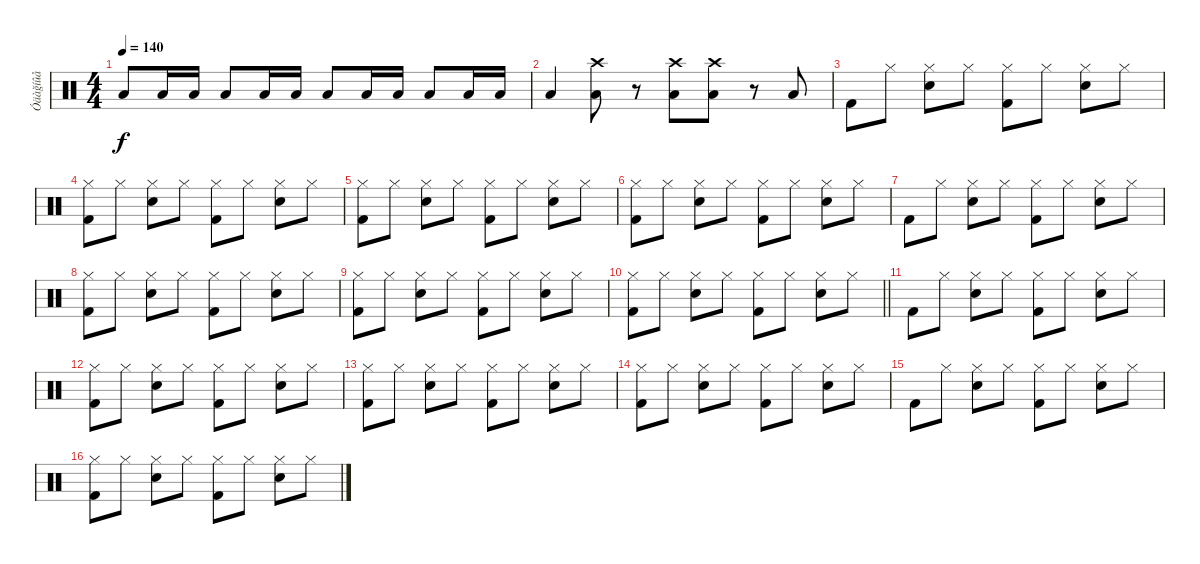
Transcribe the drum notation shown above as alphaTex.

\track ("Óäàğíûå" "Óäàğíûå") {instrument percussion}
\staff {score}
\articulation defaults
\ts (4 4)
\tempo 140
\clef neutral
\ks c "Low Tom (hit)".8{dy f} "Low Tom (hit)".16 "Low Tom (hit)".16 "Low Tom (hit)".8 "Low Tom (hit)".16 "Low Tom (hit)".16 "Low Tom (hit)".8 "Low Tom (hit)".16 "Low Tom (hit)".16 "Low Tom (hit)".8 "Low Tom (hit)".16 "Low Tom (hit)".16
|
"Low Tom (hit)".4 ("Crash high (hit)" "Low Tom (hit)").8 r.8 ("Crash high (hit)" "Low Tom (hit)").8 ("Crash high (hit)" "Low Tom (hit)").8 r.8 "Low Tom (hit)".8 |
"Kick (hit) 2".8 "Hi-Hat (closed)".8 ("Hi-Hat (closed)" "Snare (hit) 2").8 "Hi-Hat (closed)".8 ("Hi-Hat (closed)" "Kick (hit) 2").8 "Hi-Hat (closed)".8 ("Hi-Hat (closed)" "Snare (hit) 2").8 "Hi-Hat (closed)".8 |
("Hi-Hat (closed)" "Kick (hit) 2").8 "Hi-Hat (closed)".8 ("Hi-Hat (closed)" "Snare (hit) 2").8 "Hi-Hat (closed)".8 ("Hi-Hat (closed)" "Kick (hit) 2").8 "Hi-Hat (closed)".8 ("Hi-Hat (closed)" "Snare (hit) 2").8 "Hi-Hat (closed)".8 |
("Hi-Hat (closed)" "Kick (hit) 2").8 "Hi-Hat (closed)".8 ("Hi-Hat (closed)" "Snare (hit) 2").8 "Hi-Hat (closed)".8 ("Hi-Hat (closed)" "Kick (hit) 2").8 "Hi-Hat (closed)".8 ("Hi-Hat (closed)" "Snare (hit) 2").8 "Hi-Hat (closed)".8 |
("Hi-Hat (closed)" "Kick (hit) 2").8 "Hi-Hat (closed)".8 ("Hi-Hat (closed)" "Snare (hit) 2").8 "Hi-Hat (closed)".8 ("Hi-Hat (closed)" "Kick (hit) 2").8 "Hi-Hat (closed)".8 ("Hi-Hat (closed)" "Snare (hit) 2").8 "Hi-Hat (closed)".8 |
"Kick (hit) 2".8 "Hi-Hat (closed)".8 ("Hi-Hat (closed)" "Snare (hit) 2").8 "Hi-Hat (closed)".8 ("Hi-Hat (closed)" "Kick (hit) 2").8 "Hi-Hat (closed)".8 ("Hi-Hat (closed)" "Snare (hit) 2").8 "Hi-Hat (closed)".8 |
("Hi-Hat (closed)" "Kick (hit) 2").8 "Hi-Hat (closed)".8 ("Hi-Hat (closed)" "Snare (hit) 2").8 "Hi-Hat (closed)".8 ("Hi-Hat (closed)" "Kick (hit) 2").8 "Hi-Hat (closed)".8 ("Hi-Hat (closed)" "Snare (hit) 2").8 "Hi-Hat (closed)".8 |
("Hi-Hat (closed)" "Kick (hit) 2").8 "Hi-Hat (closed)".8 ("Hi-Hat (closed)" "Snare (hit) 2").8 "Hi-Hat (closed)".8 ("Hi-Hat (closed)" "Kick (hit) 2").8 "Hi-Hat (closed)".8 ("Hi-Hat (closed)" "Snare (hit) 2").8 "Hi-Hat (closed)".8 |
\barLineRight lightlight
("Hi-Hat (closed)" "Kick (hit) 2").8 "Hi-Hat (closed)".8 ("Hi-Hat (closed)" "Snare (hit) 2").8 "Hi-Hat (closed)".8 ("Hi-Hat (closed)" "Kick (hit) 2").8 "Hi-Hat (closed)".8 ("Hi-Hat (closed)" "Snare (hit) 2").8 "Hi-Hat (closed)".8 |
"Kick (hit) 2".8 "Hi-Hat (closed)".8 ("Hi-Hat (closed)" "Snare (hit) 2").8 "Hi-Hat (closed)".8 ("Hi-Hat (closed)" "Kick (hit) 2").8 "Hi-Hat (closed)".8 ("Hi-Hat (closed)" "Snare (hit) 2").8 "Hi-Hat (closed)".8 |
("Hi-Hat (closed)" "Kick (hit) 2").8 "Hi-Hat (closed)".8 ("Hi-Hat (closed)" "Snare (hit) 2").8 "Hi-Hat (closed)".8 ("Hi-Hat (closed)" "Kick (hit) 2").8 "Hi-Hat (closed)".8 ("Hi-Hat (closed)" "Snare (hit) 2").8 "Hi-Hat (closed)".8 |
("Hi-Hat (closed)" "Kick (hit) 2").8 "Hi-Hat (closed)".8 ("Hi-Hat (closed)" "Snare (hit) 2").8 "Hi-Hat (closed)".8 ("Hi-Hat (closed)" "Kick (hit) 2").8 "Hi-Hat (closed)".8 ("Hi-Hat (closed)" "Snare (hit) 2").8 "Hi-Hat (closed)".8 |
("Hi-Hat (closed)" "Kick (hit) 2").8 "Hi-Hat (closed)".8 ("Hi-Hat (closed)" "Snare (hit) 2").8 "Hi-Hat (closed)".8 ("Hi-Hat (closed)" "Kick (hit) 2").8 "Hi-Hat (closed)".8 ("Hi-Hat (closed)" "Snare (hit) 2").8 "Hi-Hat (closed)".8 |
"Kick (hit) 2".8 "Hi-Hat (closed)".8 ("Hi-Hat (closed)" "Snare (hit) 2").8 "Hi-Hat (closed)".8 ("Hi-Hat (closed)" "Kick (hit) 2").8 "Hi-Hat (closed)".8 ("Hi-Hat (closed)" "Snare (hit) 2").8 "Hi-Hat (closed)".8 |
("Hi-Hat (closed)" "Kick (hit) 2").8 "Hi-Hat (closed)".8 ("Hi-Hat (closed)" "Snare (hit) 2").8 "Hi-Hat (closed)".8 ("Hi-Hat (closed)" "Kick (hit) 2").8 "Hi-Hat (closed)".8 ("Hi-Hat (closed)" "Snare (hit) 2").8 "Hi-Hat (closed)".8
